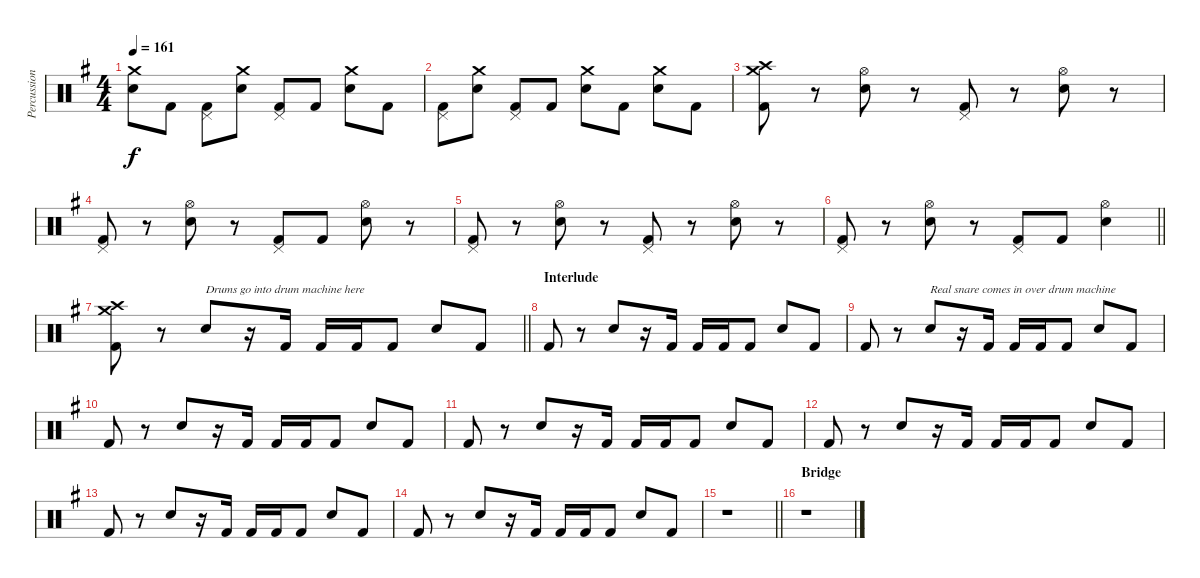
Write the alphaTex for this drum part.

\track ("Percussion" "Percussion") {instrument percussion}
\staff {score}
\articulation defaults
\ts (4 4)
\tempo 161
\clef neutral
\ks g
("Crash medium (hit)" "Electric Snare (hit)").8{dy f} "Kick (hit) 2".8 ("Pedal Hi-Hat (hit)" "Kick (hit) 2").8 ("Crash medium (hit)" "Electric Snare (hit)").8 ("Pedal Hi-Hat (hit)" "Kick (hit) 2").8 "Kick (hit) 2".8 ("Crash medium (hit)" "Electric Snare (hit)").8 "Kick (hit) 2".8 |
("Pedal Hi-Hat (hit)" "Kick (hit) 2").8 ("Crash medium (hit)" "Electric Snare (hit)").8 ("Pedal Hi-Hat (hit)" "Kick (hit) 2").8 "Kick (hit) 2".8 ("Crash medium (hit)" "Electric Snare (hit)").8 "Kick (hit) 2".8 ("Crash medium (hit)" "Electric Snare (hit)").8 "Kick (hit) 2".8 |
("Crash high (hit)" "Crash medium (hit)" "Kick (hit) 2").8 r.8 ("Hi-Hat (open)" "Electric Snare (hit)").8 r.8 ("Pedal Hi-Hat (hit)" "Kick (hit) 2").8 r.8 ("Hi-Hat (open)" "Electric Snare (hit)").8 r.8 |
("Pedal Hi-Hat (hit)" "Kick (hit) 2").8 r.8 ("Hi-Hat (open)" "Electric Snare (hit)").8 r.8 ("Pedal Hi-Hat (hit)" "Kick (hit) 2").8 "Kick (hit) 2".8 ("Hi-Hat (open)" "Electric Snare (hit)").8 r.8 |
("Pedal Hi-Hat (hit)" "Kick (hit) 2").8 r.8 ("Hi-Hat (open)" "Electric Snare (hit)").8 r.8 ("Pedal Hi-Hat (hit)" "Kick (hit) 2").8 r.8 ("Hi-Hat (open)" "Electric Snare (hit)").8 r.8 |
\barLineRight lightlight
("Pedal Hi-Hat (hit)" "Kick (hit) 2").8 r.8 ("Hi-Hat (open)" "Electric Snare (hit)").8 r.8 ("Pedal Hi-Hat (hit)" "Kick (hit) 2").8 "Kick (hit) 2".8 ("Hi-Hat (open)" "Electric Snare (hit)").4 |
\barLineRight lightlight
("Crash high (hit)" "Crash medium (hit)" "Kick (hit) 2").8 r.8 "Electric Snare (hit)".8{txt "Drums go into drum machine here"} r.16 "Kick (hit) 2".16 "Kick (hit) 2".16 "Kick (hit) 2".16 "Kick (hit) 2".8 "Electric Snare (hit)".8 "Kick (hit) 2".8 |
\section ("" "Interlude")
"Kick (hit) 2".8 r.8 "Electric Snare (hit)".8 r.16 "Kick (hit) 2".16 "Kick (hit) 2".16 "Kick (hit) 2".16 "Kick (hit) 2".8 "Electric Snare (hit)".8 "Kick (hit) 2".8 |
"Kick (hit) 2".8 r.8 "Electric Snare (hit)".8{txt "Real snare comes in over drum machine"} r.16 "Kick (hit) 2".16 "Kick (hit) 2".16 "Kick (hit) 2".16 "Kick (hit) 2".8 "Electric Snare (hit)".8 "Kick (hit) 2".8 |
"Kick (hit) 2".8 r.8 "Electric Snare (hit)".8 r.16 "Kick (hit) 2".16 "Kick (hit) 2".16 "Kick (hit) 2".16 "Kick (hit) 2".8 "Electric Snare (hit)".8 "Kick (hit) 2".8 |
"Kick (hit) 2".8 r.8 "Electric Snare (hit)".8 r.16 "Kick (hit) 2".16 "Kick (hit) 2".16 "Kick (hit) 2".16 "Kick (hit) 2".8 "Electric Snare (hit)".8 "Kick (hit) 2".8 |
"Kick (hit) 2".8 r.8 "Electric Snare (hit)".8 r.16 "Kick (hit) 2".16 "Kick (hit) 2".16 "Kick (hit) 2".16 "Kick (hit) 2".8 "Electric Snare (hit)".8 "Kick (hit) 2".8 |
"Kick (hit) 2".8 r.8 "Electric Snare (hit)".8 r.16 "Kick (hit) 2".16 "Kick (hit) 2".16 "Kick (hit) 2".16 "Kick (hit) 2".8 "Electric Snare (hit)".8 "Kick (hit) 2".8 |
"Kick (hit) 2".8 r.8 "Electric Snare (hit)".8 r.16 "Kick (hit) 2".16 "Kick (hit) 2".16 "Kick (hit) 2".16 "Kick (hit) 2".8 "Electric Snare (hit)".8 "Kick (hit) 2".8 |
\barLineRight lightlight
r.1 |
\section ("" "Bridge")
r.1
